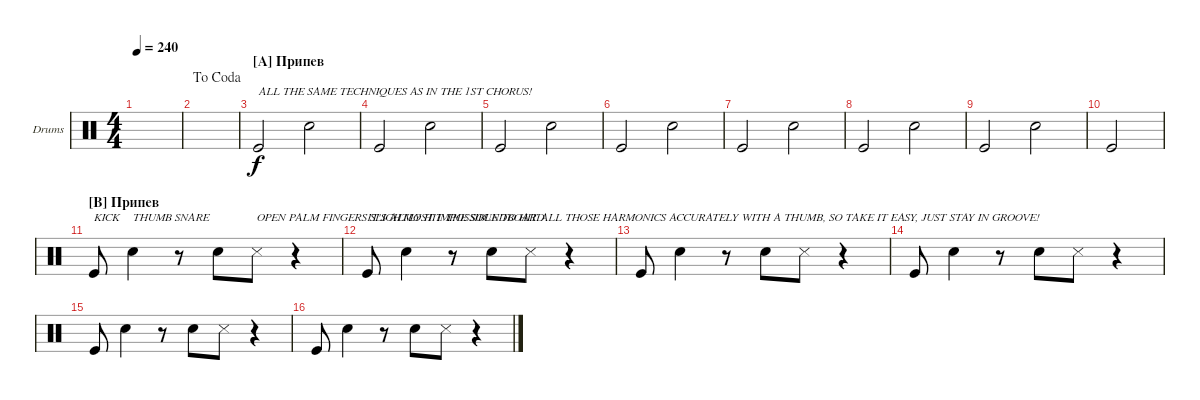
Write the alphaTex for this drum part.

\defaultSystemsLayout 4
\bracketExtendMode groupsimilarinstruments
\firstSystemTrackNameOrientation horizontal
\otherSystemsTrackNameOrientation horizontal
\track ("Drumkit" "Drums") {instrument percussion}
\staff {score}
\articulation defaults
\ts (4 4)
\tempo 240
\clef neutral
\ks c
|
\jump dacoda
|
\section ("A" "Припев")
"Kick (hit)".2{txt "ALL THE SAME TECHNIQUES AS IN THE 1ST CHORUS!"} "Snare (hit) 2".2 |
"Kick (hit)".2 "Snare (hit) 2".2 |
"Kick (hit)".2 "Snare (hit) 2".2 |
"Kick (hit)".2 "Snare (hit) 2".2 |
"Kick (hit)".2 "Snare (hit) 2".2 |
"Kick (hit)".2 "Snare (hit) 2".2 |
"Kick (hit)".2 "Snare (hit) 2".2 |
"Kick (hit)".2 |
\section ("B" "Припев")
"Kick (hit)".8{txt "KICK"} "Snare (hit) 2".4{txt "THUMB SNARE"} r.8 "Snare (hit) 2".8 "Snare (side stick) 3".8{txt "OPEN PALM FINGERS SLIGHTLY HIT THE SOUNDBOARD"} r.4 |
"Kick (hit)".8{txt "IT'S ALMOST IMPOSSIBLE TO HIT ALL THOSE HARMONICS ACCURATELY WITH A THUMB, SO TAKE IT EASY, JUST STAY IN GROOVE!"} "Snare (hit) 2".4 r.8 "Snare (hit) 2".8 "Snare (side stick) 3".8 r.4 |
"Kick (hit)".8 "Snare (hit) 2".4 r.8 "Snare (hit) 2".8 "Snare (side stick) 3".8 r.4 |
"Kick (hit)".8 "Snare (hit) 2".4 r.8 "Snare (hit) 2".8 "Snare (side stick) 3".8 r.4 |
"Kick (hit)".8 "Snare (hit) 2".4 r.8 "Snare (hit) 2".8 "Snare (side stick) 3".8 r.4 |
"Kick (hit)".8 "Snare (hit) 2".4 r.8 "Snare (hit) 2".8 "Snare (side stick) 3".8 r.4
